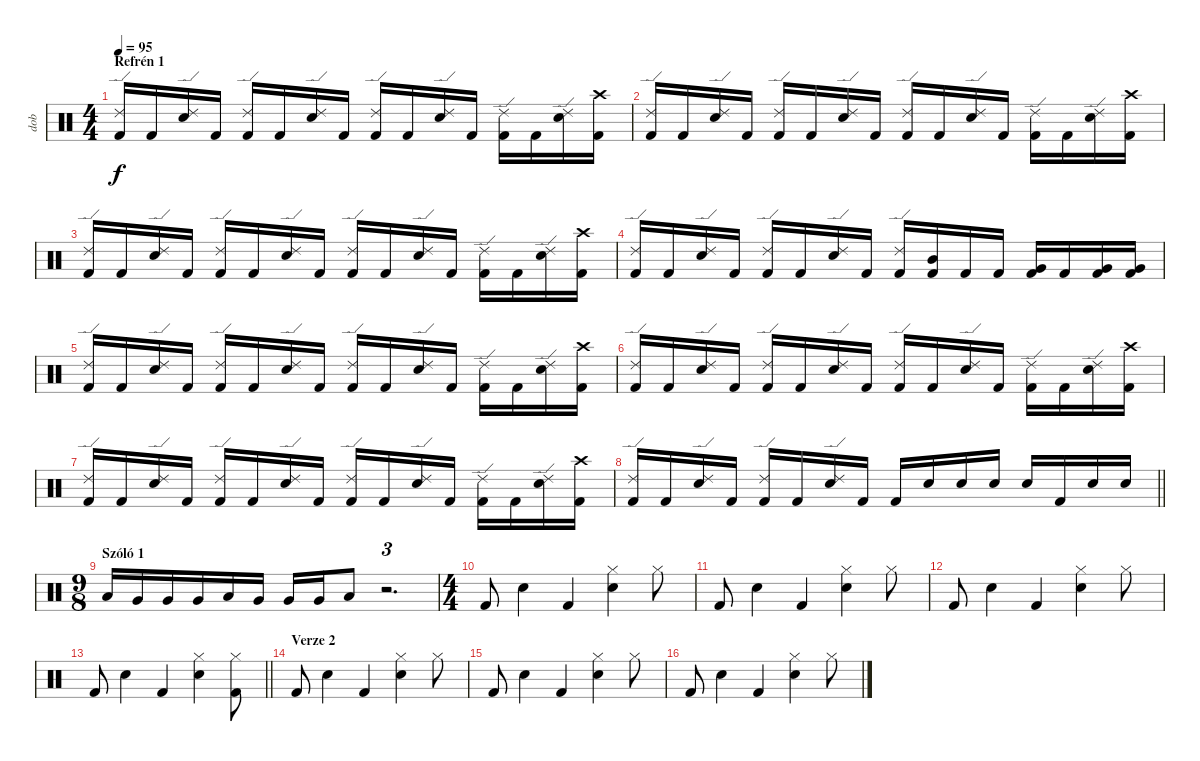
\track ("dob" "dob") {instrument percussion}
\staff {score}
\articulation defaults
\ts (4 4)
\section ("" "Refrén 1")
\tempo 95
\clef neutral
\ks c
("Ride (edge) 2" "Kick (hit) 2").16{dy f} "Kick (hit) 2".16 ("Ride (edge) 2" "Electric Snare (hit)").16 "Kick (hit) 2".16 ("Ride (edge) 2" "Kick (hit) 2").16 "Kick (hit) 2".16 ("Ride (edge) 2" "Electric Snare (hit)").16 "Kick (hit) 2".16 ("Ride (edge) 2" "Kick (hit) 2").16 "Kick (hit) 2".16 ("Ride (edge) 2" "Electric Snare (hit)").16 "Kick (hit) 2".16 ("Ride (edge) 2" "Kick (hit) 2").16 "Kick (hit) 2".16 ("Ride (edge) 2" "Electric Snare (hit)").16 ("Crash high (hit)" "Kick (hit) 2").16 |
("Ride (edge) 2" "Kick (hit) 2").16 "Kick (hit) 2".16 ("Ride (edge) 2" "Electric Snare (hit)").16 "Kick (hit) 2".16 ("Ride (edge) 2" "Kick (hit) 2").16 "Kick (hit) 2".16 ("Ride (edge) 2" "Electric Snare (hit)").16 "Kick (hit) 2".16 ("Ride (edge) 2" "Kick (hit) 2").16 "Kick (hit) 2".16 ("Ride (edge) 2" "Electric Snare (hit)").16 "Kick (hit) 2".16 ("Ride (edge) 2" "Kick (hit) 2").16 "Kick (hit) 2".16 ("Ride (edge) 2" "Electric Snare (hit)").16 ("Crash high (hit)" "Kick (hit) 2").16 |
("Ride (edge) 2" "Kick (hit) 2").16 "Kick (hit) 2".16 ("Ride (edge) 2" "Electric Snare (hit)").16 "Kick (hit) 2".16 ("Ride (edge) 2" "Kick (hit) 2").16 "Kick (hit) 2".16 ("Ride (edge) 2" "Electric Snare (hit)").16 "Kick (hit) 2".16 ("Ride (edge) 2" "Kick (hit) 2").16 "Kick (hit) 2".16 ("Ride (edge) 2" "Electric Snare (hit)").16 "Kick (hit) 2".16 ("Ride (edge) 2" "Kick (hit) 2").16 "Kick (hit) 2".16 ("Ride (edge) 2" "Electric Snare (hit)").16 ("Crash high (hit)" "Kick (hit) 2").16 |
("Ride (edge) 2" "Kick (hit) 2").16 "Kick (hit) 2".16 ("Ride (edge) 2" "Electric Snare (hit)").16 "Kick (hit) 2".16 ("Ride (edge) 2" "Kick (hit) 2").16 "Kick (hit) 2".16 ("Ride (edge) 2" "Electric Snare (hit)").16 "Kick (hit) 2".16 ("Ride (edge) 2" "Kick (hit) 2").16 ("Mid Tom (hit)" "Kick (hit) 2").16 "Kick (hit) 2".16 "Kick (hit) 2".16 ("Very Low Tom (hit)" "Kick (hit) 2").16 "Kick (hit) 2".16 ("Very Low Tom (hit)" "Kick (hit) 2").16 ("Very Low Tom (hit)" "Kick (hit) 2").16 |
("Ride (edge) 2" "Kick (hit) 2").16 "Kick (hit) 2".16 ("Ride (edge) 2" "Electric Snare (hit)").16 "Kick (hit) 2".16 ("Ride (edge) 2" "Kick (hit) 2").16 "Kick (hit) 2".16 ("Ride (edge) 2" "Electric Snare (hit)").16 "Kick (hit) 2".16 ("Ride (edge) 2" "Kick (hit) 2").16 "Kick (hit) 2".16 ("Ride (edge) 2" "Electric Snare (hit)").16 "Kick (hit) 2".16 ("Ride (edge) 2" "Kick (hit) 2").16 "Kick (hit) 2".16 ("Ride (edge) 2" "Electric Snare (hit)").16 ("Crash high (hit)" "Kick (hit) 2").16 |
("Ride (edge) 2" "Kick (hit) 2").16 "Kick (hit) 2".16 ("Ride (edge) 2" "Electric Snare (hit)").16 "Kick (hit) 2".16 ("Ride (edge) 2" "Kick (hit) 2").16 "Kick (hit) 2".16 ("Ride (edge) 2" "Electric Snare (hit)").16 "Kick (hit) 2".16 ("Ride (edge) 2" "Kick (hit) 2").16 "Kick (hit) 2".16 ("Ride (edge) 2" "Electric Snare (hit)").16 "Kick (hit) 2".16 ("Ride (edge) 2" "Kick (hit) 2").16 "Kick (hit) 2".16 ("Ride (edge) 2" "Electric Snare (hit)").16 ("Crash high (hit)" "Kick (hit) 2").16 |
("Ride (edge) 2" "Kick (hit) 2").16 "Kick (hit) 2".16 ("Ride (edge) 2" "Electric Snare (hit)").16 "Kick (hit) 2".16 ("Ride (edge) 2" "Kick (hit) 2").16 "Kick (hit) 2".16 ("Ride (edge) 2" "Electric Snare (hit)").16 "Kick (hit) 2".16 ("Ride (edge) 2" "Kick (hit) 2").16 "Kick (hit) 2".16 ("Ride (edge) 2" "Electric Snare (hit)").16 "Kick (hit) 2".16 ("Ride (edge) 2" "Kick (hit) 2").16 "Kick (hit) 2".16 ("Ride (edge) 2" "Electric Snare (hit)").16 ("Crash high (hit)" "Kick (hit) 2").16 |
\barLineRight lightlight
("Ride (edge) 2" "Kick (hit) 2").16 "Kick (hit) 2".16 ("Ride (edge) 2" "Electric Snare (hit)").16 "Kick (hit) 2".16 ("Ride (edge) 2" "Kick (hit) 2").16 "Kick (hit) 2".16 ("Ride (edge) 2" "Electric Snare (hit)").16 "Kick (hit) 2".16 "Kick (hit) 2".16 "Electric Snare (hit)".16 "Electric Snare (hit)".16 "Electric Snare (hit)".16 "Electric Snare (hit)".16 "Kick (hit) 2".16 "Electric Snare (hit)".16 "Electric Snare (hit)".16 |
\ts (9 8)
\section ("" "Szóló 1")
"Low Tom (hit)".16 "Very Low Tom (hit)".16 "Very Low Tom (hit)".16 "Very Low Tom (hit)".16 "Low Tom (hit)".16 "Very Low Tom (hit)".16 "Very Low Tom (hit)".16 "Very Low Tom (hit)".16 "Low Tom (hit)".8 r.2{d tu (3 2)} |
\ts (4 4)
"Kick (hit) 2".8 "Electric Snare (hit)".4 "Kick (hit) 2".4 ("Hi-Hat (closed)" "Electric Snare (hit)").4 "Hi-Hat (closed)".8 |
"Kick (hit) 2".8 "Electric Snare (hit)".4 "Kick (hit) 2".4 ("Hi-Hat (closed)" "Electric Snare (hit)").4 "Hi-Hat (closed)".8 |
"Kick (hit) 2".8 "Electric Snare (hit)".4 "Kick (hit) 2".4 ("Hi-Hat (closed)" "Electric Snare (hit)").4 "Hi-Hat (closed)".8 |
\barLineRight lightlight "Kick (hit) 2".8 "Electric Snare (hit)".4 "Kick (hit) 2".4
("Hi-Hat (closed)" "Electric Snare (hit)").4 ("Hi-Hat (closed)" "Kick (hit) 2").8 |
\section ("" "Verze 2")
"Kick (hit) 2".8 "Electric Snare (hit)".4 "Kick (hit) 2".4 ("Hi-Hat (closed)" "Electric Snare (hit)").4 "Hi-Hat (closed)".8 |
"Kick (hit) 2".8 "Electric Snare (hit)".4 "Kick (hit) 2".4 ("Hi-Hat (closed)" "Electric Snare (hit)").4 "Hi-Hat (closed)".8 |
"Kick (hit) 2".8 "Electric Snare (hit)".4 "Kick (hit) 2".4 ("Hi-Hat (closed)" "Electric Snare (hit)").4 "Hi-Hat (closed)".8
